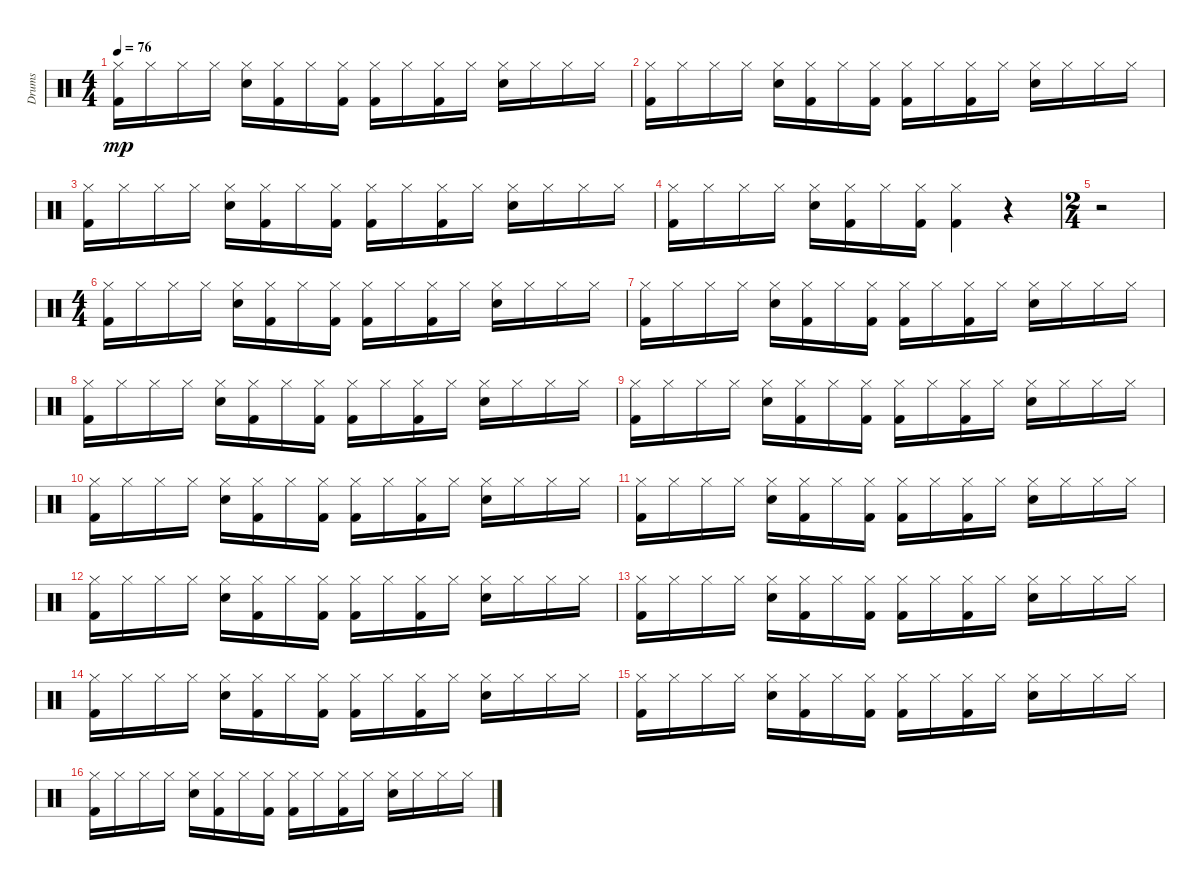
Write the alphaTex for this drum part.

\track ("Drums" "Drums") {instrument percussion}
\staff {score}
\articulation defaults
\ts (4 4)
\tempo 76
\clef neutral
\ks c
("Hi-Hat (closed)" "Kick (hit) 2").16{dy mp} "Hi-Hat (closed)".16 "Hi-Hat (closed)".16 "Hi-Hat (closed)".16 ("Hi-Hat (closed)" "Snare (hit) 2").16 ("Hi-Hat (closed)" "Kick (hit) 2").16 "Hi-Hat (closed)".16 ("Hi-Hat (closed)" "Kick (hit) 2").16 ("Hi-Hat (closed)" "Kick (hit) 2").16 "Hi-Hat (closed)".16 ("Hi-Hat (closed)" "Kick (hit) 2").16 "Hi-Hat (closed)".16 ("Snare (hit) 2" "Hi-Hat (closed)").16 "Hi-Hat (closed)".16 "Hi-Hat (closed)".16 "Hi-Hat (closed)".16 |
("Hi-Hat (closed)" "Kick (hit) 2").16 "Hi-Hat (closed)".16 "Hi-Hat (closed)".16 "Hi-Hat (closed)".16 ("Hi-Hat (closed)" "Snare (hit) 2").16 ("Hi-Hat (closed)" "Kick (hit) 2").16 "Hi-Hat (closed)".16 ("Hi-Hat (closed)" "Kick (hit) 2").16 ("Hi-Hat (closed)" "Kick (hit) 2").16 "Hi-Hat (closed)".16 ("Hi-Hat (closed)" "Kick (hit) 2").16 "Hi-Hat (closed)".16 ("Snare (hit) 2" "Hi-Hat (closed)").16 "Hi-Hat (closed)".16 "Hi-Hat (closed)".16 "Hi-Hat (closed)".16 |
("Hi-Hat (closed)" "Kick (hit) 2").16 "Hi-Hat (closed)".16 "Hi-Hat (closed)".16 "Hi-Hat (closed)".16 ("Hi-Hat (closed)" "Snare (hit) 2").16 ("Hi-Hat (closed)" "Kick (hit) 2").16 "Hi-Hat (closed)".16 ("Hi-Hat (closed)" "Kick (hit) 2").16 ("Hi-Hat (closed)" "Kick (hit) 2").16 "Hi-Hat (closed)".16 ("Hi-Hat (closed)" "Kick (hit) 2").16 "Hi-Hat (closed)".16 ("Snare (hit) 2" "Hi-Hat (closed)").16 "Hi-Hat (closed)".16 "Hi-Hat (closed)".16 "Hi-Hat (closed)".16 |
("Hi-Hat (closed)" "Kick (hit) 2").16 "Hi-Hat (closed)".16 "Hi-Hat (closed)".16 "Hi-Hat (closed)".16 ("Hi-Hat (closed)" "Snare (hit) 2").16 ("Hi-Hat (closed)" "Kick (hit) 2").16 "Hi-Hat (closed)".16 ("Hi-Hat (closed)" "Kick (hit) 2").16 ("Hi-Hat (closed)" "Kick (hit) 2").4 r.4 |
\ts (2 4)
r.2 |
\ts (4 4)
("Hi-Hat (closed)" "Kick (hit) 2").16 "Hi-Hat (closed)".16 "Hi-Hat (closed)".16 "Hi-Hat (closed)".16 ("Hi-Hat (closed)" "Snare (hit) 2").16 ("Hi-Hat (closed)" "Kick (hit) 2").16 "Hi-Hat (closed)".16 ("Hi-Hat (closed)" "Kick (hit) 2").16 ("Hi-Hat (closed)" "Kick (hit) 2").16 "Hi-Hat (closed)".16 ("Hi-Hat (closed)" "Kick (hit) 2").16 "Hi-Hat (closed)".16 ("Snare (hit) 2" "Hi-Hat (closed)").16 "Hi-Hat (closed)".16 "Hi-Hat (closed)".16 "Hi-Hat (closed)".16 |
("Hi-Hat (closed)" "Kick (hit) 2").16 "Hi-Hat (closed)".16 "Hi-Hat (closed)".16 "Hi-Hat (closed)".16 ("Hi-Hat (closed)" "Snare (hit) 2").16 ("Hi-Hat (closed)" "Kick (hit) 2").16 "Hi-Hat (closed)".16 ("Hi-Hat (closed)" "Kick (hit) 2").16 ("Hi-Hat (closed)" "Kick (hit) 2").16 "Hi-Hat (closed)".16 ("Hi-Hat (closed)" "Kick (hit) 2").16 "Hi-Hat (closed)".16 ("Snare (hit) 2" "Hi-Hat (closed)").16 "Hi-Hat (closed)".16 "Hi-Hat (closed)".16 "Hi-Hat (closed)".16 |
("Hi-Hat (closed)" "Kick (hit) 2").16 "Hi-Hat (closed)".16 "Hi-Hat (closed)".16 "Hi-Hat (closed)".16 ("Hi-Hat (closed)" "Snare (hit) 2").16 ("Hi-Hat (closed)" "Kick (hit) 2").16 "Hi-Hat (closed)".16 ("Hi-Hat (closed)" "Kick (hit) 2").16 ("Hi-Hat (closed)" "Kick (hit) 2").16 "Hi-Hat (closed)".16 ("Hi-Hat (closed)" "Kick (hit) 2").16 "Hi-Hat (closed)".16 ("Snare (hit) 2" "Hi-Hat (closed)").16 "Hi-Hat (closed)".16 "Hi-Hat (closed)".16 "Hi-Hat (closed)".16 |
("Hi-Hat (closed)" "Kick (hit) 2").16 "Hi-Hat (closed)".16 "Hi-Hat (closed)".16 "Hi-Hat (closed)".16 ("Hi-Hat (closed)" "Snare (hit) 2").16 ("Hi-Hat (closed)" "Kick (hit) 2").16 "Hi-Hat (closed)".16 ("Hi-Hat (closed)" "Kick (hit) 2").16 ("Hi-Hat (closed)" "Kick (hit) 2").16 "Hi-Hat (closed)".16 ("Hi-Hat (closed)" "Kick (hit) 2").16 "Hi-Hat (closed)".16 ("Snare (hit) 2" "Hi-Hat (closed)").16 "Hi-Hat (closed)".16 "Hi-Hat (closed)".16 "Hi-Hat (closed)".16 |
("Hi-Hat (closed)" "Kick (hit) 2").16 "Hi-Hat (closed)".16 "Hi-Hat (closed)".16 "Hi-Hat (closed)".16 ("Hi-Hat (closed)" "Snare (hit) 2").16 ("Hi-Hat (closed)" "Kick (hit) 2").16 "Hi-Hat (closed)".16 ("Hi-Hat (closed)" "Kick (hit) 2").16 ("Hi-Hat (closed)" "Kick (hit) 2").16 "Hi-Hat (closed)".16 ("Hi-Hat (closed)" "Kick (hit) 2").16 "Hi-Hat (closed)".16 ("Snare (hit) 2" "Hi-Hat (closed)").16 "Hi-Hat (closed)".16 "Hi-Hat (closed)".16 "Hi-Hat (closed)".16 |
("Hi-Hat (closed)" "Kick (hit) 2").16 "Hi-Hat (closed)".16 "Hi-Hat (closed)".16 "Hi-Hat (closed)".16 ("Hi-Hat (closed)" "Snare (hit) 2").16 ("Hi-Hat (closed)" "Kick (hit) 2").16 "Hi-Hat (closed)".16 ("Hi-Hat (closed)" "Kick (hit) 2").16 ("Hi-Hat (closed)" "Kick (hit) 2").16 "Hi-Hat (closed)".16 ("Hi-Hat (closed)" "Kick (hit) 2").16 "Hi-Hat (closed)".16 ("Snare (hit) 2" "Hi-Hat (closed)").16 "Hi-Hat (closed)".16 "Hi-Hat (closed)".16 "Hi-Hat (closed)".16 |
("Hi-Hat (closed)" "Kick (hit) 2").16 "Hi-Hat (closed)".16 "Hi-Hat (closed)".16 "Hi-Hat (closed)".16 ("Hi-Hat (closed)" "Snare (hit) 2").16 ("Hi-Hat (closed)" "Kick (hit) 2").16 "Hi-Hat (closed)".16 ("Hi-Hat (closed)" "Kick (hit) 2").16 ("Hi-Hat (closed)" "Kick (hit) 2").16 "Hi-Hat (closed)".16 ("Hi-Hat (closed)" "Kick (hit) 2").16 "Hi-Hat (closed)".16 ("Snare (hit) 2" "Hi-Hat (closed)").16 "Hi-Hat (closed)".16 "Hi-Hat (closed)".16 "Hi-Hat (closed)".16 |
("Hi-Hat (closed)" "Kick (hit) 2").16 "Hi-Hat (closed)".16 "Hi-Hat (closed)".16 "Hi-Hat (closed)".16 ("Hi-Hat (closed)" "Snare (hit) 2").16 ("Hi-Hat (closed)" "Kick (hit) 2").16 "Hi-Hat (closed)".16 ("Hi-Hat (closed)" "Kick (hit) 2").16 ("Hi-Hat (closed)" "Kick (hit) 2").16 "Hi-Hat (closed)".16 ("Hi-Hat (closed)" "Kick (hit) 2").16 "Hi-Hat (closed)".16 ("Snare (hit) 2" "Hi-Hat (closed)").16 "Hi-Hat (closed)".16 "Hi-Hat (closed)".16 "Hi-Hat (closed)".16 |
("Hi-Hat (closed)" "Kick (hit) 2").16 "Hi-Hat (closed)".16 "Hi-Hat (closed)".16 "Hi-Hat (closed)".16 ("Hi-Hat (closed)" "Snare (hit) 2").16 ("Hi-Hat (closed)" "Kick (hit) 2").16 "Hi-Hat (closed)".16 ("Hi-Hat (closed)" "Kick (hit) 2").16 ("Hi-Hat (closed)" "Kick (hit) 2").16 "Hi-Hat (closed)".16 ("Hi-Hat (closed)" "Kick (hit) 2").16 "Hi-Hat (closed)".16 ("Snare (hit) 2" "Hi-Hat (closed)").16 "Hi-Hat (closed)".16 "Hi-Hat (closed)".16 "Hi-Hat (closed)".16 |
("Hi-Hat (closed)" "Kick (hit) 2").16 "Hi-Hat (closed)".16 "Hi-Hat (closed)".16 "Hi-Hat (closed)".16 ("Hi-Hat (closed)" "Snare (hit) 2").16 ("Hi-Hat (closed)" "Kick (hit) 2").16 "Hi-Hat (closed)".16 ("Hi-Hat (closed)" "Kick (hit) 2").16 ("Hi-Hat (closed)" "Kick (hit) 2").16 "Hi-Hat (closed)".16 ("Hi-Hat (closed)" "Kick (hit) 2").16 "Hi-Hat (closed)".16 ("Snare (hit) 2" "Hi-Hat (closed)").16 "Hi-Hat (closed)".16 "Hi-Hat (closed)".16 "Hi-Hat (closed)".16 |
("Hi-Hat (closed)" "Kick (hit) 2").16 "Hi-Hat (closed)".16 "Hi-Hat (closed)".16 "Hi-Hat (closed)".16 ("Hi-Hat (closed)" "Snare (hit) 2").16 ("Hi-Hat (closed)" "Kick (hit) 2").16 "Hi-Hat (closed)".16 ("Hi-Hat (closed)" "Kick (hit) 2").16 ("Hi-Hat (closed)" "Kick (hit) 2").16 "Hi-Hat (closed)".16 ("Hi-Hat (closed)" "Kick (hit) 2").16 "Hi-Hat (closed)".16 ("Snare (hit) 2" "Hi-Hat (closed)").16 "Hi-Hat (closed)".16 "Hi-Hat (closed)".16 "Hi-Hat (closed)".16
